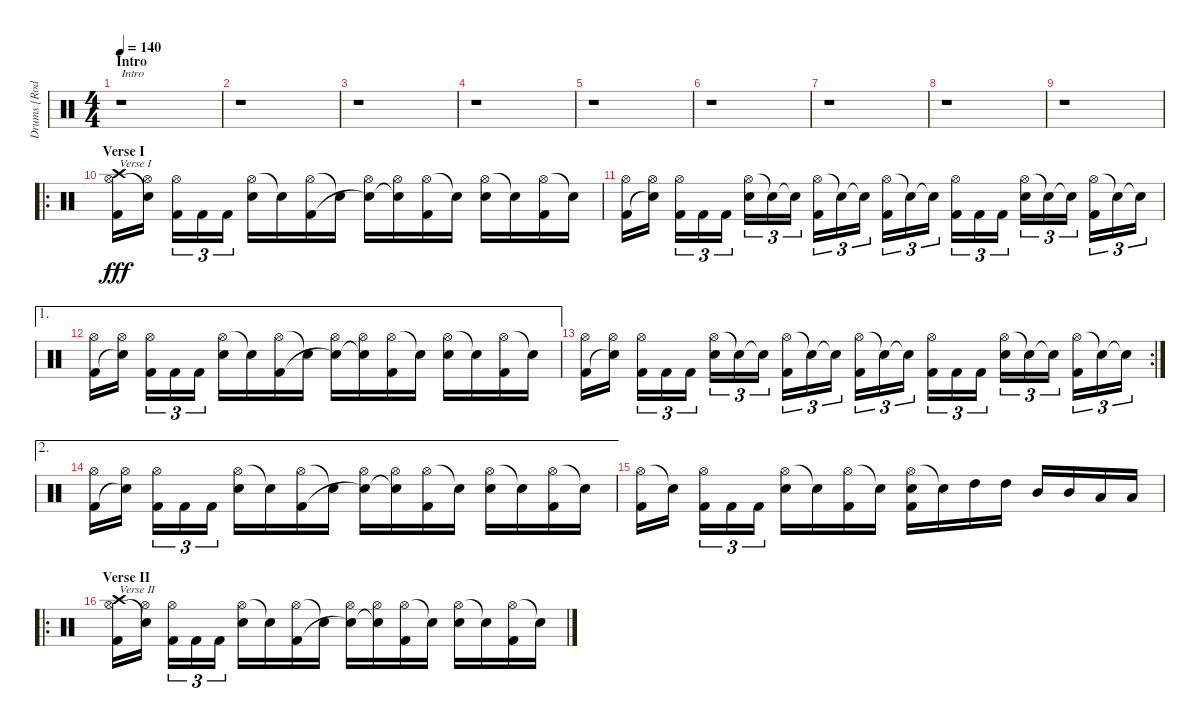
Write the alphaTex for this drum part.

\track ("Drums [Rodney Holder]" "Drums [Rod") {instrument percussion}
\staff {score}
\articulation defaults
\ts (4 4)
\section ("" "Intro")
\tempo 140
\clef neutral
\ks c
r.1{txt "Intro" dy fff} |
r.1 |
r.1 |
r.1 |
r.1 |
r.1 |
r.1 |
r.1 |
r.1 |
\ro
\section ("" "Verse I")
("Crash high (hit)" "Hi-Hat (open)" "Kick (hit) 2").16{txt "Verse I"} ("Hi-Hat (open)" "Snare (hit)"{t}).16 ("Hi-Hat (open)" "Kick (hit) 2").16{tu (3 2)} "Kick (hit) 2".16{tu (3 2)} "Kick (hit) 2".16{tu (3 2)} ("Hi-Hat (open)" "Electric Snare (hit)").16 "Snare (hit)"{t}.16 ("Hi-Hat (open)" "Kick (hit) 2").16 "Snare (hit)"{t}.16 ("Hi-Hat (open)" "Snare (hit)"{t}).16 ("Hi-Hat (open)" "Snare (hit)"{t}).16 ("Hi-Hat (open)" "Kick (hit) 2").16 "Snare (hit)"{t}.16 ("Hi-Hat (open)" "Electric Snare (hit)").16 "Snare (hit)"{t}.16 ("Hi-Hat (open)" "Kick (hit) 2").16 "Snare (hit)"{t}.16 |
("Hi-Hat (open)" "Kick (hit) 2").16 ("Hi-Hat (open)" "Snare (hit)"{t}).16 ("Hi-Hat (open)" "Kick (hit) 2").16{tu (3 2)} "Kick (hit) 2".16{tu (3 2)} "Kick (hit) 2".16{tu (3 2)} ("Hi-Hat (open)" "Electric Snare (hit)").16{tu (3 2)} "Snare (hit)"{t}.16{tu (3 2)} "Snare (hit)"{t}.16{tu (3 2)} ("Hi-Hat (open)" "Kick (hit) 2").16{tu (3 2)} "Snare (hit)"{t}.16{tu (3 2)} "Snare (hit)"{t}.16{tu (3 2)} ("Hi-Hat (open)" "Kick (hit) 2").16{tu (3 2)} "Snare (hit)"{t}.16{tu (3 2)} "Snare (hit)"{t}.16{tu (3 2)} ("Hi-Hat (open)" "Kick (hit) 2").16{tu (3 2)} "Kick (hit) 2".16{tu (3 2)} "Kick (hit) 2".16{tu (3 2)} ("Hi-Hat (open)" "Electric Snare (hit)").16{tu (3 2)} "Snare (hit)"{t}.16{tu (3 2)} "Snare (hit)"{t}.16{tu (3 2)} ("Hi-Hat (open)" "Kick (hit) 2").16{tu (3 2)} "Snare (hit)"{t}.16{tu (3 2)} "Snare (hit)"{t}.16{tu (3 2)} |
\ae 1
("Hi-Hat (open)" "Kick (hit) 2").16 ("Hi-Hat (open)" "Snare (hit)"{t}).16 ("Hi-Hat (open)" "Kick (hit) 2").16{tu (3 2)} "Kick (hit) 2".16{tu (3 2)} "Kick (hit) 2".16{tu (3 2)} ("Hi-Hat (open)" "Electric Snare (hit)").16 "Snare (hit)"{t}.16 ("Hi-Hat (open)" "Kick (hit) 2").16 "Snare (hit)"{t}.16 ("Hi-Hat (open)" "Snare (hit)"{t}).16 ("Hi-Hat (open)" "Snare (hit)"{t}).16 ("Hi-Hat (open)" "Kick (hit) 2").16 "Snare (hit)"{t}.16 ("Hi-Hat (open)" "Electric Snare (hit)").16 "Snare (hit)"{t}.16 ("Hi-Hat (open)" "Kick (hit) 2").16 "Snare (hit)"{t}.16 |
\rc 2
("Hi-Hat (open)" "Kick (hit) 2").16 ("Hi-Hat (open)" "Snare (hit)"{t}).16 ("Hi-Hat (open)" "Kick (hit) 2").16{tu (3 2)} "Kick (hit) 2".16{tu (3 2)} "Kick (hit) 2".16{tu (3 2)} ("Hi-Hat (open)" "Electric Snare (hit)").16{tu (3 2)} "Snare (hit)"{t}.16{tu (3 2)} "Snare (hit)"{t}.16{tu (3 2)} ("Hi-Hat (open)" "Kick (hit) 2").16{tu (3 2)} "Snare (hit)"{t}.16{tu (3 2)} "Snare (hit)"{t}.16{tu (3 2)} ("Hi-Hat (open)" "Kick (hit) 2").16{tu (3 2)} "Snare (hit)"{t}.16{tu (3 2)} "Snare (hit)"{t}.16{tu (3 2)} ("Hi-Hat (open)" "Kick (hit) 2").16{tu (3 2)} "Kick (hit) 2".16{tu (3 2)} "Kick (hit) 2".16{tu (3 2)} ("Hi-Hat (open)" "Electric Snare (hit)").16{tu (3 2)} "Snare (hit)"{t}.16{tu (3 2)} "Snare (hit)"{t}.16{tu (3 2)} ("Hi-Hat (open)" "Kick (hit) 2").16{tu (3 2)} "Snare (hit)"{t}.16{tu (3 2)} "Snare (hit)"{t}.16{tu (3 2)} |
\ae 2
("Hi-Hat (open)" "Kick (hit) 2").16 ("Hi-Hat (open)" "Snare (hit)"{t}).16 ("Hi-Hat (open)" "Kick (hit) 2").16{tu (3 2)} "Kick (hit) 2".16{tu (3 2)} "Kick (hit) 2".16{tu (3 2)} ("Hi-Hat (open)" "Electric Snare (hit)").16 "Snare (hit)"{t}.16 ("Hi-Hat (open)" "Kick (hit) 2").16 "Snare (hit)"{t}.16 ("Hi-Hat (open)" "Snare (hit)"{t}).16 ("Hi-Hat (open)" "Snare (hit)"{t}).16 ("Hi-Hat (open)" "Kick (hit) 2").16 "Snare (hit)"{t}.16 ("Hi-Hat (open)" "Electric Snare (hit)").16 "Snare (hit)"{t}.16 ("Hi-Hat (open)" "Kick (hit) 2").16 "Snare (hit)"{t}.16 |
("Hi-Hat (open)" "Kick (hit) 2").16 "Snare (hit)"{t}.16 ("Hi-Hat (open)" "Kick (hit) 2").16{tu (3 2)} "Kick (hit) 2".16{tu (3 2)} "Kick (hit) 2".16{tu (3 2)} ("Hi-Hat (open)" "Electric Snare (hit)").16 "Snare (hit)"{t}.16 ("Hi-Hat (open)" "Kick (hit) 2").16 "Snare (hit)"{t}.16 ("Hi-Hat (open)" "Electric Snare (hit)" "Kick (hit) 2").16 "Snare (hit)"{t}.16 "High Tom (hit)".16 "High Tom (hit)".16 "Mid Tom (hit)".16 "Mid Tom (hit)".16 "Low Tom (hit)".16 "Low Tom (hit)".16 |
\ro
\section ("" "Verse II")
("Crash high (hit)" "Hi-Hat (open)" "Kick (hit) 2").16{txt "Verse II"} ("Hi-Hat (open)" "Snare (hit)"{t}).16 ("Hi-Hat (open)" "Kick (hit) 2").16{tu (3 2)} "Kick (hit) 2".16{tu (3 2)} "Kick (hit) 2".16{tu (3 2)} ("Hi-Hat (open)" "Electric Snare (hit)").16 "Snare (hit)"{t}.16 ("Hi-Hat (open)" "Kick (hit) 2").16 "Snare (hit)"{t}.16 ("Hi-Hat (open)" "Snare (hit)"{t}).16 ("Hi-Hat (open)" "Snare (hit)"{t}).16 ("Hi-Hat (open)" "Kick (hit) 2").16 "Snare (hit)"{t}.16 ("Hi-Hat (open)" "Electric Snare (hit)").16 "Snare (hit)"{t}.16 ("Hi-Hat (open)" "Kick (hit) 2").16 "Snare (hit)"{t}.16
